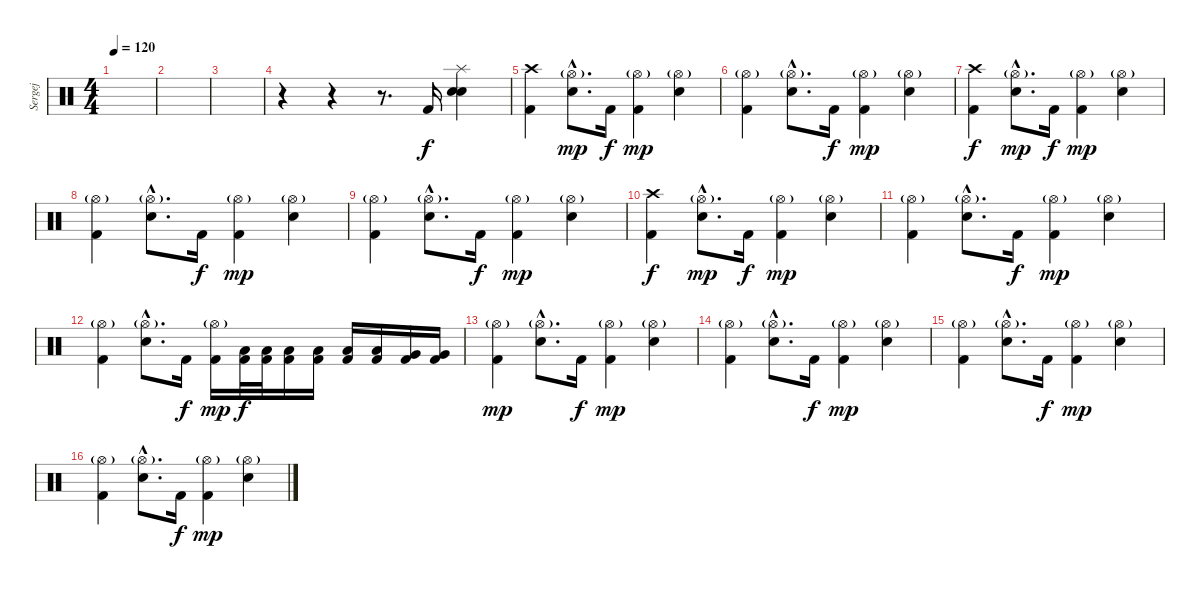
\track ("Sergej" "Sergej") {instrument percussion}
\staff {score}
\articulation defaults
\ts (4 4)
\tempo 120
\tempo 90
\tempo 120
\clef neutral
\ks c
|
|
|
r.4 r.4 r.8{d} "Kick (hit) 2".16 ("Splash (hit)" "Snare (hit) 2" "Snare (hit) 2").4 |
("Crash high (hit)" "Kick (hit) 2").4 ("Hi-Hat (open)"{g hac} "Snare (hit) 2"{hac}).8{d dy mp} "Kick (hit) 2".16{dy f} ("Hi-Hat (open)"{g} "Kick (hit) 2").4{dy mp} ("Hi-Hat (open)"{g} "Snare (hit) 2").4 |
("Hi-Hat (open)"{g} "Kick (hit) 2").4 ("Hi-Hat (open)"{g hac} "Snare (hit) 2"{hac}).8{d} "Kick (hit) 2".16{dy f} ("Hi-Hat (open)"{g} "Kick (hit) 2").4{dy mp} ("Hi-Hat (open)"{g} "Snare (hit) 2").4 |
("Crash high (hit)" "Kick (hit) 2").4{dy f} ("Hi-Hat (open)"{g hac} "Snare (hit) 2"{hac}).8{d dy mp} "Kick (hit) 2".16{dy f} ("Hi-Hat (open)"{g} "Kick (hit) 2").4{dy mp} ("Hi-Hat (open)"{g} "Snare (hit) 2").4 |
("Hi-Hat (open)"{g} "Kick (hit) 2").4 ("Hi-Hat (open)"{g hac} "Snare (hit) 2"{hac}).8{d} "Kick (hit) 2".16{dy f} ("Hi-Hat (open)"{g} "Kick (hit) 2").4{dy mp} ("Hi-Hat (open)"{g} "Snare (hit) 2").4 |
("Hi-Hat (open)"{g} "Kick (hit) 2").4 ("Hi-Hat (open)"{g hac} "Snare (hit) 2"{hac}).8{d} "Kick (hit) 2".16{dy f} ("Hi-Hat (open)"{g} "Kick (hit) 2").4{dy mp} ("Hi-Hat (open)"{g} "Snare (hit) 2").4 |
("Crash high (hit)" "Kick (hit) 2").4{dy f} ("Hi-Hat (open)"{g hac} "Snare (hit) 2"{hac}).8{d dy mp} "Kick (hit) 2".16{dy f} ("Hi-Hat (open)"{g} "Kick (hit) 2").4{dy mp} ("Hi-Hat (open)"{g} "Snare (hit) 2").4 |
("Hi-Hat (open)"{g} "Kick (hit) 2").4 ("Hi-Hat (open)"{g hac} "Snare (hit) 2"{hac}).8{d} "Kick (hit) 2".16{dy f} ("Hi-Hat (open)"{g} "Kick (hit) 2").4{dy mp} ("Hi-Hat (open)"{g} "Snare (hit) 2").4 |
("Hi-Hat (open)"{g} "Kick (hit) 2").4 ("Hi-Hat (open)"{g hac} "Snare (hit) 2"{hac}).8{d} "Kick (hit) 2".16{dy f} ("Hi-Hat (open)"{g} "Kick (hit) 2").16{dy mp} ("Kick (hit) 2" "Low Tom (hit)").32{dy f} ("Kick (hit) 2" "Low Tom (hit)").32 ("Kick (hit) 2" "Low Tom (hit)").16 ("Kick (hit) 2" "Low Tom (hit)").16 ("Kick (hit) 2" "Low Tom (hit)").16 ("Kick (hit) 2" "Low Tom (hit)").16 ("Kick (hit) 2" "Very Low Tom (hit)").16 ("Kick (hit) 2" "Very Low Tom (hit)").16 |
("Hi-Hat (open)"{g} "Kick (hit) 2").4{dy mp} ("Hi-Hat (open)"{g hac} "Snare (hit) 2"{hac}).8{d} "Kick (hit) 2".16{dy f} ("Hi-Hat (open)"{g} "Kick (hit) 2").4{dy mp} ("Hi-Hat (open)"{g} "Snare (hit) 2").4 |
("Hi-Hat (open)"{g} "Kick (hit) 2").4 ("Hi-Hat (open)"{g hac} "Snare (hit) 2"{hac}).8{d} "Kick (hit) 2".16{dy f} ("Hi-Hat (open)"{g} "Kick (hit) 2").4{dy mp} ("Hi-Hat (open)"{g} "Snare (hit) 2").4 |
("Hi-Hat (open)"{g} "Kick (hit) 2").4 ("Hi-Hat (open)"{g hac} "Snare (hit) 2"{hac}).8{d} "Kick (hit) 2".16{dy f} ("Hi-Hat (open)"{g} "Kick (hit) 2").4{dy mp} ("Hi-Hat (open)"{g} "Snare (hit) 2").4 |
("Hi-Hat (open)"{g} "Kick (hit) 2").4 ("Hi-Hat (open)"{g hac} "Snare (hit) 2"{hac}).8{d} "Kick (hit) 2".16{dy f} ("Hi-Hat (open)"{g} "Kick (hit) 2").4{dy mp} ("Hi-Hat (open)"{g} "Snare (hit) 2").4
